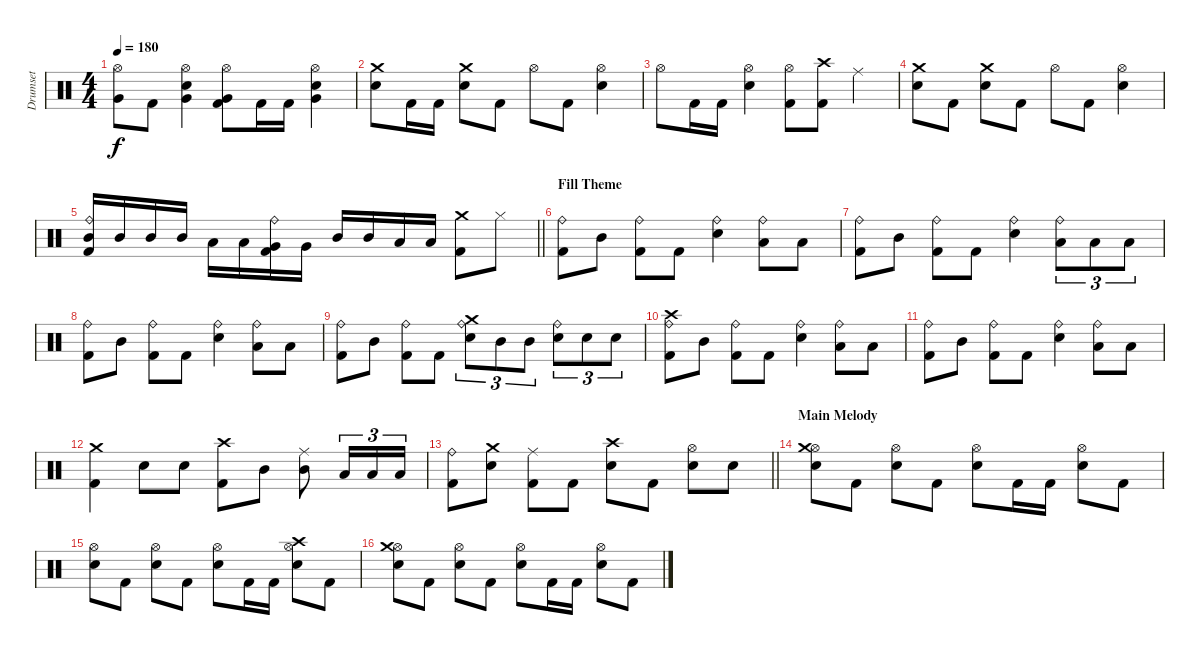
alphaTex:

\track ("Drumset" "Drumset") {instrument percussion}
\staff {score}
\articulation defaults
\ts (4 4)
\tempo 180
\clef neutral
\ks c
("Hi-Hat (open)" "Very Low Tom (hit)").8{dy f} "Kick (hit) 2".8 ("Hi-Hat (open)" "Very Low Tom (hit)" "Snare (hit) 2").4 ("Hi-Hat (open)" "Very Low Tom (hit)" "Kick (hit) 2").8 "Kick (hit) 2".16 "Kick (hit) 2".16 ("Hi-Hat (open)" "Very Low Tom (hit)" "Snare (hit) 2").4 |
("Crash medium (hit)" "Snare (hit) 2").8 "Kick (hit) 2".16 "Kick (hit) 2".16 ("Crash medium (hit)" "Snare (hit) 2").8 "Kick (hit) 2".8 "Hi-Hat (open)".8 "Kick (hit) 2".8 ("Hi-Hat (open)" "Snare (hit) 2").4 |
"Hi-Hat (open)".8 "Kick (hit) 2".16 "Kick (hit) 2".16 ("Hi-Hat (open)" "Snare (hit) 2").4 ("Hi-Hat (open)" "Kick (hit) 2").8 ("Crash high (hit)" "Kick (hit) 2").8 "Ride (middle)".4 |
("Crash medium (hit)" "Snare (hit) 2").8 "Kick (hit) 2".8 ("Crash medium (hit)" "Snare (hit) 2").8 "Kick (hit) 2".8 "Hi-Hat (open)".8 "Kick (hit) 2".8 ("Hi-Hat (open)" "Snare (hit) 2").4 |
\barLineRight lightlight
("Ride (bell)" "Mid Tom (hit)" "Kick (hit) 2").16 "Mid Tom (hit)".16 "Mid Tom (hit)".16 "Mid Tom (hit)".16 "Low Tom (hit)".16 "Low Tom (hit)".16 ("Ride (bell)" "Very Low Tom (hit)" "Kick (hit) 2").16 "Very Low Tom (hit)".16 "Mid Tom (hit)".16 "Mid Tom (hit)".16 "Low Tom (hit)".16 "Low Tom (hit)".16 ("Crash medium (hit)" "Kick (hit) 2").8 "Hi-Hat (closed)".8 |
\section ("" "Fill Theme")
("Ride (bell)" "Kick (hit) 2").8 "Mid Tom (hit)".8 ("Ride (bell)" "Kick (hit) 2").8 "Kick (hit) 2".8 ("Ride (bell)" "Snare (hit) 2").4 ("Ride (bell)" "Low Tom (hit)").8 "Low Tom (hit)".8 |
("Ride (bell)" "Kick (hit) 2").8 "Mid Tom (hit)".8 ("Ride (bell)" "Kick (hit) 2").8 "Kick (hit) 2".8 ("Ride (bell)" "Snare (hit) 2").4 ("Ride (bell)" "Low Tom (hit)").8{tu (3 2)} "Low Tom (hit)".8{tu (3 2)} "Low Tom (hit)".8{tu (3 2)} |
("Ride (bell)" "Kick (hit) 2").8 "Mid Tom (hit)".8 ("Ride (bell)" "Kick (hit) 2").8 "Kick (hit) 2".8 ("Ride (bell)" "Snare (hit) 2").4 ("Ride (bell)" "Low Tom (hit)").8 "Low Tom (hit)".8 |
("Ride (bell)" "Kick (hit) 2").8 "Mid Tom (hit)".8 ("Ride (bell)" "Kick (hit) 2").8 "Kick (hit) 2".8 ("Ride (bell)" "Crash medium (hit)" "Snare (hit) 2").8{tu (3 2)} "Mid Tom (hit)".8{tu (3 2)} "Mid Tom (hit)".8{tu (3 2)} ("Ride (bell)" "Snare (hit) 2").8{tu (3 2)} "Snare (hit) 2".8{tu (3 2)} "Snare (hit) 2".8{tu (3 2)} |
("Ride (bell)" "Crash high (hit)" "Kick (hit) 2").8 "Mid Tom (hit)".8 ("Ride (bell)" "Kick (hit) 2").8 "Kick (hit) 2".8 ("Ride (bell)" "Snare (hit) 2").4 ("Ride (bell)" "Low Tom (hit)").8 "Low Tom (hit)".8 |
("Ride (bell)" "Kick (hit) 2").8 "Mid Tom (hit)".8 ("Ride (bell)" "Kick (hit) 2").8 "Kick (hit) 2".8 ("Ride (bell)" "Snare (hit) 2").4 ("Ride (bell)" "Low Tom (hit)").8 "Low Tom (hit)".8 |
("Crash medium (hit)" "Kick (hit) 2").4 "Snare (hit) 2".8 "Snare (hit) 2".8 ("Crash high (hit)" "Kick (hit) 2").8 "Mid Tom (hit)".8 ("Ride (middle)" "Mid Tom (hit)").8 "Low Tom (hit)".16{tu (3 2)} "Low Tom (hit)".16{tu (3 2)} "Low Tom (hit)".16{tu (3 2)} |
\barLineRight lightlight
("Ride (bell)" "Kick (hit) 2").8 ("Crash medium (hit)" "Snare (hit) 2").8 ("Ride (middle)" "Kick (hit) 2").8 "Kick (hit) 2".8 ("Crash high (hit)" "Snare (hit) 2").8 "Kick (hit) 2".8 ("Hi-Hat (open)" "Snare (hit) 2").8 "Snare (hit) 2".8 |
\section ("" "Main Melody")
("Hi-Hat (open)" "Crash medium (hit)" "Snare (hit) 2").8 "Kick (hit) 2".8 ("Hi-Hat (open)" "Snare (hit) 2").8 "Kick (hit) 2".8 ("Hi-Hat (open)" "Snare (hit) 2").8 "Kick (hit) 2".16 "Kick (hit) 2".16 ("Hi-Hat (open)" "Snare (hit) 2").8 "Kick (hit) 2".8 |
("Hi-Hat (open)" "Snare (hit) 2").8 "Kick (hit) 2".8 ("Hi-Hat (open)" "Snare (hit) 2").8 "Kick (hit) 2".8 ("Hi-Hat (open)" "Snare (hit) 2").8 "Kick (hit) 2".16 "Kick (hit) 2".16 ("Hi-Hat (open)" "Crash high (hit)" "Snare (hit) 2").8 "Kick (hit) 2".8 |
("Hi-Hat (open)" "Crash medium (hit)" "Snare (hit) 2").8 "Kick (hit) 2".8 ("Hi-Hat (open)" "Snare (hit) 2").8 "Kick (hit) 2".8 ("Hi-Hat (open)" "Snare (hit) 2").8 "Kick (hit) 2".16 "Kick (hit) 2".16 ("Hi-Hat (open)" "Snare (hit) 2").8 "Kick (hit) 2".8
